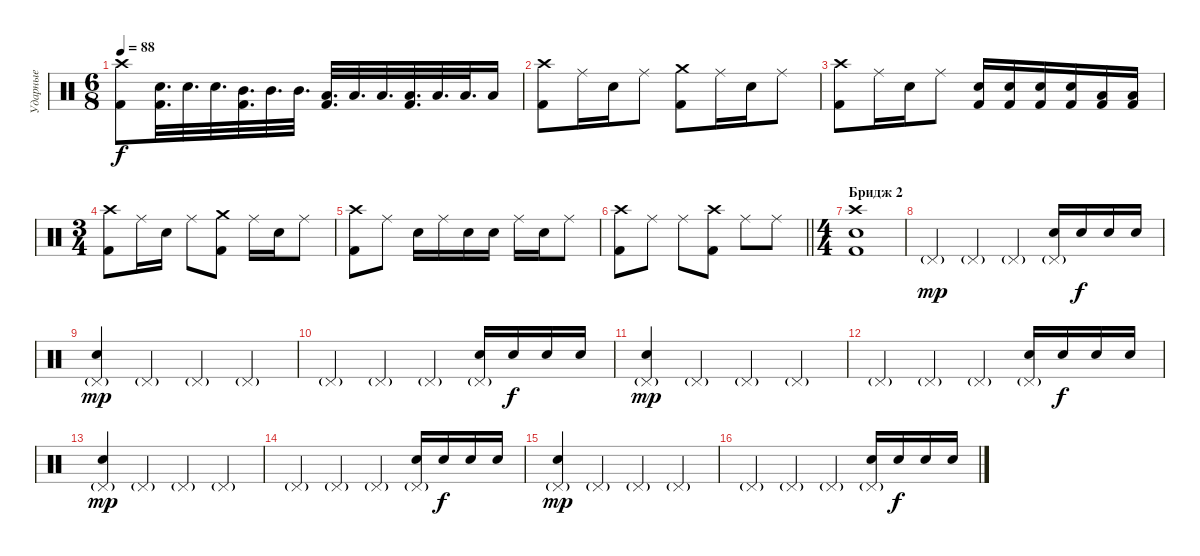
\track ("Ударные" "Ударные") {instrument percussion}
\staff {score}
\articulation defaults
\ts (6 8)
\tempo 88
\clef neutral
\ks c
("Crash high (hit)" "Kick (hit) 2").8{dy f} ("Snare (hit) 2" "Kick (hit) 2").32{d} "Snare (hit) 2".32{d} "Snare (hit) 2".32{d} ("Mid Tom (hit)" "Kick (hit) 2").32{d} "Mid Tom (hit)".32{d} "Mid Tom (hit)".32{d} ("Low Tom (hit)" "Kick (hit) 2").32{d} "Low Tom (hit)".32{d} "Low Tom (hit)".32{d} ("Low Floor Tom (hit)" "Kick (hit) 2").32{d} "Low Floor Tom (hit)".32{d} "Low Floor Tom (hit)".32{d} "Low Floor Tom (hit)".16 |
("Crash high (hit)" "Kick (hit) 2").8 "Ride (middle)".16 "Snare (hit) 2".16 "Ride (middle)".8 ("Crash medium (hit)" "Kick (hit) 2").8 "Ride (middle)".16 "Snare (hit) 2".16 "Ride (middle)".8 |
("Crash high (hit)" "Kick (hit) 2").8 "Ride (middle)".16 "Snare (hit) 2".16 "Ride (middle)".8 ("Snare (hit) 2" "Kick (hit) 2").16 ("Snare (hit) 2" "Kick (hit) 2").16 ("Snare (hit) 2" "Kick (hit) 2").16 ("Snare (hit) 2" "Kick (hit) 2").16 ("Low Tom (hit)" "Kick (hit) 2").16 ("Low Tom (hit)" "Kick (hit) 2").16 |
\ts (3 4)
("Crash high (hit)" "Kick (hit) 2").8 "Ride (middle)".16 "Snare (hit) 2".16 "Ride (middle)".8 ("Crash medium (hit)" "Kick (hit) 2").8 "Ride (middle)".16 "Snare (hit) 2".16 "Ride (middle)".8 |
("Crash high (hit)" "Kick (hit) 2").8 "Ride (middle)".8 "Snare (hit) 2".16 "Ride (middle)".16 "Snare (hit) 2".16 "Snare (hit) 2".16 "Ride (middle)".16 "Snare (hit) 2".16 "Ride (middle)".8 |
\barLineRight lightlight
("Crash high (hit)" "Kick (hit) 2").8 "Ride (middle)".8 "Ride (middle)".8 ("Crash high (hit)" "Kick (hit) 2").8 "Ride (middle)".8 "Ride (middle)".8 |
\ts (4 4)
\section ("" "Бридж 2")
("Crash high (hit)" "Snare (hit) 2" "Kick (hit) 2").1 |
"Pedal Hi-Hat (hit)"{g}.4{dy mp} "Pedal Hi-Hat (hit)"{g}.4 "Pedal Hi-Hat (hit)"{g}.4 ("Snare (hit) 2" "Pedal Hi-Hat (hit)"{g}).16 "Snare (hit) 2".16{dy f} "Snare (hit) 2".16 "Snare (hit) 2".16 |
("Snare (hit) 2" "Pedal Hi-Hat (hit)"{g}).4{dy mp} "Pedal Hi-Hat (hit)"{g}.4 "Pedal Hi-Hat (hit)"{g}.4 "Pedal Hi-Hat (hit)"{g}.4 |
"Pedal Hi-Hat (hit)"{g}.4 "Pedal Hi-Hat (hit)"{g}.4 "Pedal Hi-Hat (hit)"{g}.4 ("Snare (hit) 2" "Pedal Hi-Hat (hit)"{g}).16 "Snare (hit) 2".16{dy f} "Snare (hit) 2".16 "Snare (hit) 2".16 |
("Snare (hit) 2" "Pedal Hi-Hat (hit)"{g}).4{dy mp} "Pedal Hi-Hat (hit)"{g}.4 "Pedal Hi-Hat (hit)"{g}.4 "Pedal Hi-Hat (hit)"{g}.4 |
"Pedal Hi-Hat (hit)"{g}.4 "Pedal Hi-Hat (hit)"{g}.4 "Pedal Hi-Hat (hit)"{g}.4 ("Snare (hit) 2" "Pedal Hi-Hat (hit)"{g}).16 "Snare (hit) 2".16{dy f} "Snare (hit) 2".16 "Snare (hit) 2".16 |
("Snare (hit) 2" "Pedal Hi-Hat (hit)"{g}).4{dy mp} "Pedal Hi-Hat (hit)"{g}.4 "Pedal Hi-Hat (hit)"{g}.4 "Pedal Hi-Hat (hit)"{g}.4 |
"Pedal Hi-Hat (hit)"{g}.4 "Pedal Hi-Hat (hit)"{g}.4 "Pedal Hi-Hat (hit)"{g}.4 ("Snare (hit) 2" "Pedal Hi-Hat (hit)"{g}).16 "Snare (hit) 2".16{dy f} "Snare (hit) 2".16 "Snare (hit) 2".16 |
("Snare (hit) 2" "Pedal Hi-Hat (hit)"{g}).4{dy mp} "Pedal Hi-Hat (hit)"{g}.4 "Pedal Hi-Hat (hit)"{g}.4 "Pedal Hi-Hat (hit)"{g}.4 |
"Pedal Hi-Hat (hit)"{g}.4 "Pedal Hi-Hat (hit)"{g}.4 "Pedal Hi-Hat (hit)"{g}.4 ("Snare (hit) 2" "Pedal Hi-Hat (hit)"{g}).16 "Snare (hit) 2".16{dy f} "Snare (hit) 2".16 "Snare (hit) 2".16
